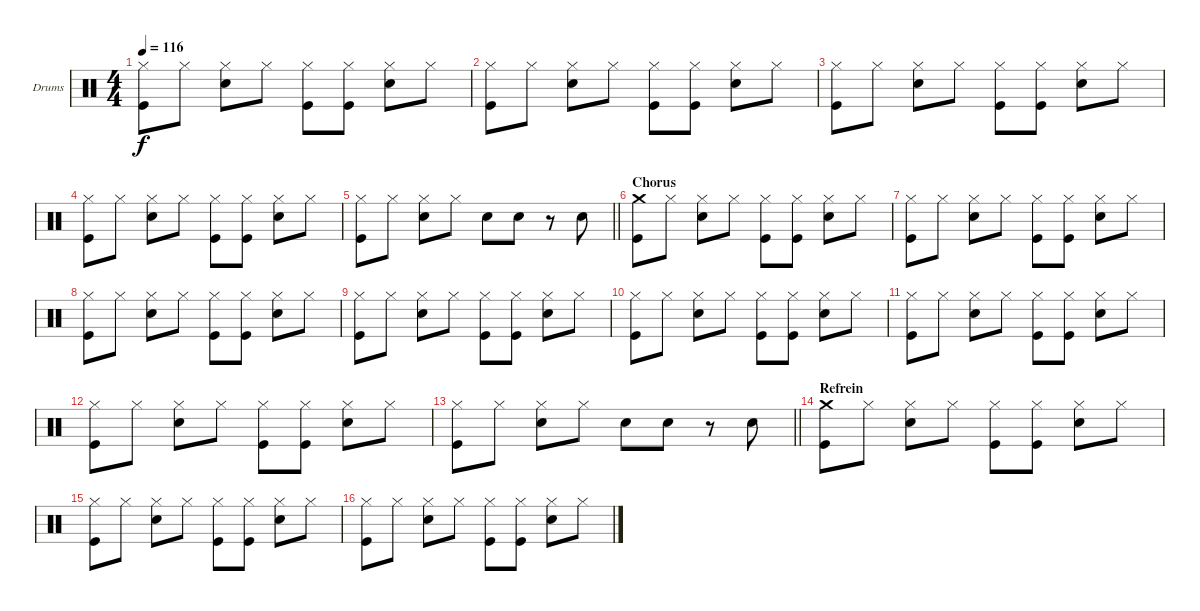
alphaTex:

\bracketExtendMode groupsimilarinstruments
\firstSystemTrackNameOrientation horizontal
\otherSystemsTrackNameOrientation horizontal
\track ("Drumkit" "Drums") {instrument percussion}
\staff {score}
\articulation defaults
\ts (4 4)
\tempo 116
\clef neutral
\ks c
("Hi-Hat (closed)" "Kick (hit)").8{dy f} "Hi-Hat (closed)".8 ("Hi-Hat (closed)" "Snare (hit) 2").8 "Hi-Hat (closed)".8 ("Hi-Hat (closed)" "Kick (hit)").8 ("Hi-Hat (closed)" "Kick (hit)").8 ("Hi-Hat (closed)" "Snare (hit) 2").8 "Hi-Hat (closed)".8 |
("Hi-Hat (closed)" "Kick (hit)").8 "Hi-Hat (closed)".8 ("Hi-Hat (closed)" "Snare (hit) 2").8 "Hi-Hat (closed)".8 ("Hi-Hat (closed)" "Kick (hit)").8 ("Hi-Hat (closed)" "Kick (hit)").8 ("Hi-Hat (closed)" "Snare (hit) 2").8 "Hi-Hat (closed)".8 |
("Hi-Hat (closed)" "Kick (hit)").8 "Hi-Hat (closed)".8 ("Hi-Hat (closed)" "Snare (hit) 2").8 "Hi-Hat (closed)".8 ("Hi-Hat (closed)" "Kick (hit)").8 ("Hi-Hat (closed)" "Kick (hit)").8 ("Hi-Hat (closed)" "Snare (hit) 2").8 "Hi-Hat (closed)".8 |
("Hi-Hat (closed)" "Kick (hit)").8 "Hi-Hat (closed)".8 ("Hi-Hat (closed)" "Snare (hit) 2").8 "Hi-Hat (closed)".8 ("Hi-Hat (closed)" "Kick (hit)").8 ("Hi-Hat (closed)" "Kick (hit)").8 ("Hi-Hat (closed)" "Snare (hit) 2").8 "Hi-Hat (closed)".8 |
\barLineRight lightlight
("Hi-Hat (closed)" "Kick (hit)").8 "Hi-Hat (closed)".8 ("Hi-Hat (closed)" "Snare (hit) 2").8 "Hi-Hat (closed)".8 "Snare (hit) 2".8 "Snare (hit) 2".8 r.8 "Snare (hit) 2".8 |
\section ("" "Chorus")
("Crash medium (hit)" "Kick (hit)").8 "Hi-Hat (closed)".8 ("Hi-Hat (closed)" "Snare (hit) 2").8 "Hi-Hat (closed)".8 ("Hi-Hat (closed)" "Kick (hit)").8 ("Hi-Hat (closed)" "Kick (hit)").8 ("Hi-Hat (closed)" "Snare (hit) 2").8 "Hi-Hat (closed)".8 |
("Hi-Hat (closed)" "Kick (hit)").8 "Hi-Hat (closed)".8 ("Hi-Hat (closed)" "Snare (hit) 2").8 "Hi-Hat (closed)".8 ("Hi-Hat (closed)" "Kick (hit)").8 ("Hi-Hat (closed)" "Kick (hit)").8 ("Hi-Hat (closed)" "Snare (hit) 2").8 "Hi-Hat (closed)".8 |
("Hi-Hat (closed)" "Kick (hit)").8 "Hi-Hat (closed)".8 ("Hi-Hat (closed)" "Snare (hit) 2").8 "Hi-Hat (closed)".8 ("Hi-Hat (closed)" "Kick (hit)").8 ("Hi-Hat (closed)" "Kick (hit)").8 ("Hi-Hat (closed)" "Snare (hit) 2").8 "Hi-Hat (closed)".8 |
("Hi-Hat (closed)" "Kick (hit)").8 "Hi-Hat (closed)".8 ("Hi-Hat (closed)" "Snare (hit) 2").8 "Hi-Hat (closed)".8 ("Hi-Hat (closed)" "Kick (hit)").8 ("Hi-Hat (closed)" "Kick (hit)").8 ("Hi-Hat (closed)" "Snare (hit) 2").8 "Hi-Hat (closed)".8 |
("Hi-Hat (closed)" "Kick (hit)").8 "Hi-Hat (closed)".8 ("Hi-Hat (closed)" "Snare (hit) 2").8 "Hi-Hat (closed)".8 ("Hi-Hat (closed)" "Kick (hit)").8 ("Hi-Hat (closed)" "Kick (hit)").8 ("Hi-Hat (closed)" "Snare (hit) 2").8 "Hi-Hat (closed)".8 |
("Hi-Hat (closed)" "Kick (hit)").8 "Hi-Hat (closed)".8 ("Hi-Hat (closed)" "Snare (hit) 2").8 "Hi-Hat (closed)".8 ("Hi-Hat (closed)" "Kick (hit)").8 ("Hi-Hat (closed)" "Kick (hit)").8 ("Hi-Hat (closed)" "Snare (hit) 2").8 "Hi-Hat (closed)".8 |
("Hi-Hat (closed)" "Kick (hit)").8 "Hi-Hat (closed)".8 ("Hi-Hat (closed)" "Snare (hit) 2").8 "Hi-Hat (closed)".8 ("Hi-Hat (closed)" "Kick (hit)").8 ("Hi-Hat (closed)" "Kick (hit)").8 ("Hi-Hat (closed)" "Snare (hit) 2").8 "Hi-Hat (closed)".8 |
\barLineRight lightlight
("Hi-Hat (closed)" "Kick (hit)").8 "Hi-Hat (closed)".8 ("Hi-Hat (closed)" "Snare (hit) 2").8 "Hi-Hat (closed)".8 "Snare (hit) 2".8 "Snare (hit) 2".8 r.8 "Snare (hit) 2".8 |
\section ("" "Refrein")
("Crash medium (hit)" "Kick (hit)").8 "Hi-Hat (closed)".8 ("Hi-Hat (closed)" "Snare (hit) 2").8 "Hi-Hat (closed)".8 ("Hi-Hat (closed)" "Kick (hit)").8 ("Hi-Hat (closed)" "Kick (hit)").8 ("Hi-Hat (closed)" "Snare (hit) 2").8 "Hi-Hat (closed)".8 |
("Hi-Hat (closed)" "Kick (hit)").8 "Hi-Hat (closed)".8 ("Hi-Hat (closed)" "Snare (hit) 2").8 "Hi-Hat (closed)".8 ("Hi-Hat (closed)" "Kick (hit)").8 ("Hi-Hat (closed)" "Kick (hit)").8 ("Hi-Hat (closed)" "Snare (hit) 2").8 "Hi-Hat (closed)".8 |
("Hi-Hat (closed)" "Kick (hit)").8 "Hi-Hat (closed)".8 ("Hi-Hat (closed)" "Snare (hit) 2").8 "Hi-Hat (closed)".8 ("Hi-Hat (closed)" "Kick (hit)").8 ("Hi-Hat (closed)" "Kick (hit)").8 ("Hi-Hat (closed)" "Snare (hit) 2").8 "Hi-Hat (closed)".8
